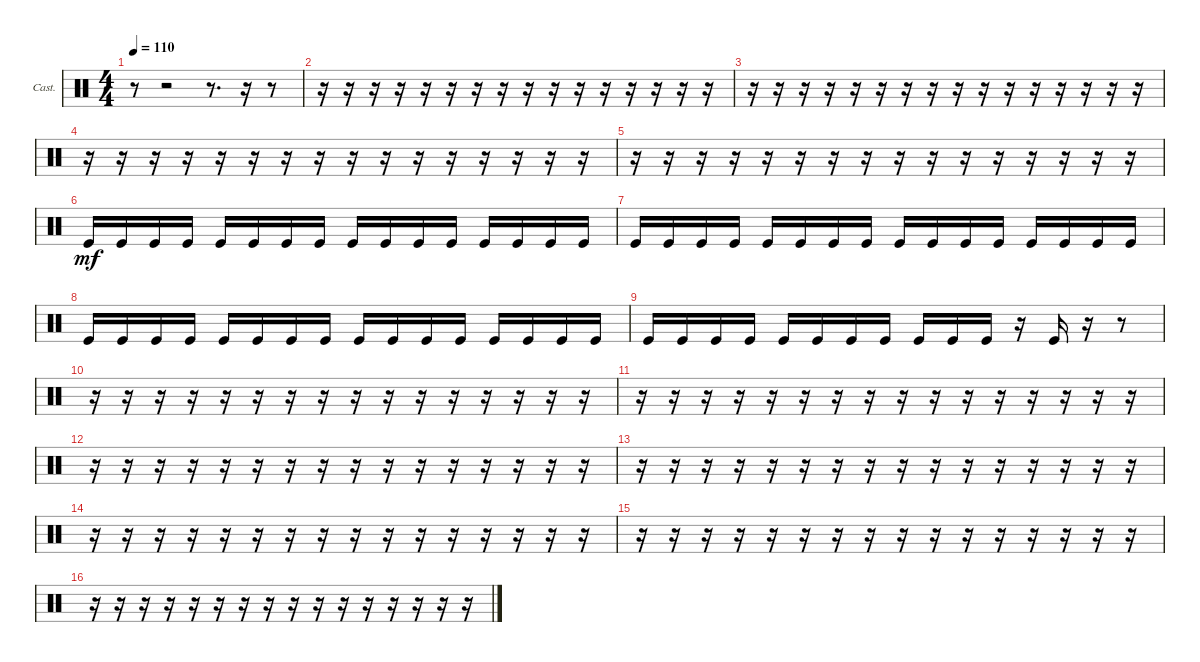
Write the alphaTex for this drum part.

\bracketExtendMode groupsimilarinstruments
\firstSystemTrackNameOrientation horizontal
\otherSystemsTrackNameOrientation horizontal
\track ("Castanets" "Cast.") {instrument percussion}
\staff {score}
\articulation defaults
\ts (4 4)
\tempo 110
\clef neutral
\ks c
r.8{dy mf} r.2 r.8{d} r.16{tp 3} r.8 |
r.16 r.16 r.16 r.16 r.16 r.16 r.16 r.16 r.16 r.16 r.16 r.16 r.16 r.16 r.16 r.16 |
r.16 r.16 r.16 r.16 r.16 r.16 r.16 r.16 r.16 r.16 r.16 r.16 r.16 r.16 r.16 r.16 |
r.16 r.16 r.16 r.16 r.16 r.16 r.16 r.16 r.16 r.16 r.16 r.16 r.16 r.16 r.16 r.16 |
r.16 r.16 r.16 r.16 r.16 r.16 r.16 r.16 r.16 r.16 r.16 r.16 r.16 r.16 r.16 r.16 |
"Kick (hit)".16 "Kick (hit)".16 "Kick (hit)".16 "Kick (hit)".16 "Kick (hit)".16 "Kick (hit)".16 "Kick (hit)".16 "Kick (hit)".16 "Kick (hit)".16 "Kick (hit)".16 "Kick (hit)".16 "Kick (hit)".16 "Kick (hit)".16 "Kick (hit)".16 "Kick (hit)".16 "Kick (hit)".16 |
"Kick (hit)".16 "Kick (hit)".16 "Kick (hit)".16 "Kick (hit)".16 "Kick (hit)".16 "Kick (hit)".16 "Kick (hit)".16 "Kick (hit)".16 "Kick (hit)".16 "Kick (hit)".16 "Kick (hit)".16 "Kick (hit)".16 "Kick (hit)".16 "Kick (hit)".16 "Kick (hit)".16 "Kick (hit)".16 |
"Kick (hit)".16 "Kick (hit)".16 "Kick (hit)".16 "Kick (hit)".16 "Kick (hit)".16 "Kick (hit)".16 "Kick (hit)".16 "Kick (hit)".16 "Kick (hit)".16 "Kick (hit)".16 "Kick (hit)".16 "Kick (hit)".16 "Kick (hit)".16 "Kick (hit)".16 "Kick (hit)".16 "Kick (hit)".16 |
"Kick (hit)".16 "Kick (hit)".16 "Kick (hit)".16 "Kick (hit)".16 "Kick (hit)".16 "Kick (hit)".16 "Kick (hit)".16 "Kick (hit)".16 "Kick (hit)".16 "Kick (hit)".16 "Kick (hit)".16 r.16 "Kick (hit)".16 r.16 r.8 |
r.16 r.16 r.16 r.16 r.16 r.16 r.16 r.16 r.16 r.16 r.16 r.16 r.16 r.16 r.16 r.16 |
r.16 r.16 r.16 r.16 r.16 r.16 r.16 r.16 r.16 r.16 r.16 r.16 r.16 r.16 r.16 r.16 |
r.16 r.16 r.16 r.16 r.16 r.16 r.16 r.16 r.16 r.16 r.16 r.16 r.16 r.16 r.16 r.16 |
r.16 r.16 r.16 r.16 r.16 r.16 r.16 r.16 r.16 r.16 r.16 r.16 r.16 r.16 r.16 r.16 |
r.16 r.16 r.16 r.16 r.16 r.16 r.16 r.16 r.16 r.16 r.16 r.16 r.16 r.16 r.16 r.16 |
r.16 r.16 r.16 r.16 r.16 r.16 r.16 r.16 r.16 r.16 r.16 r.16 r.16 r.16 r.16 r.16 |
r.16 r.16 r.16 r.16 r.16 r.16 r.16 r.16 r.16 r.16 r.16 r.16 r.16 r.16 r.16 r.16
